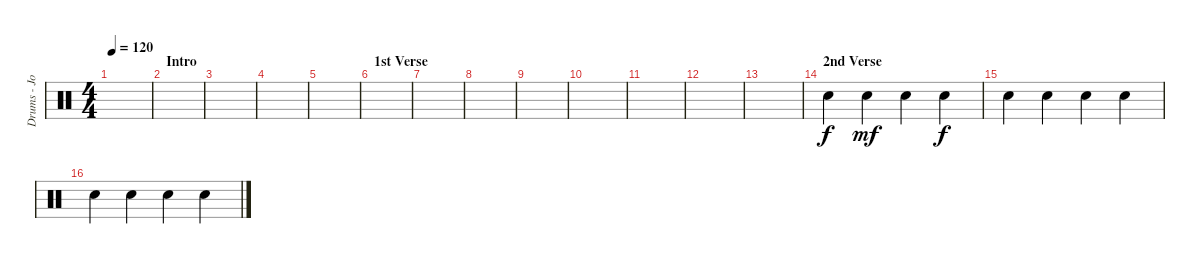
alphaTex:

\track ("Drums - Josh Klinghoffer" "Drums - Jo") {instrument percussion}
\staff {score}
\articulation defaults
\ts (4 4)
\tempo 120
\clef neutral
\ks c
|
\section ("" "Intro")
|
|
|
|
\section ("" "1st Verse")
|
|
|
|
|
|
|
|
\section ("" "2nd Verse")
"Snare (hit) 2".4 "Snare (hit) 2".4{dy mf} "Snare (hit) 2".4 "Snare (hit) 2".4{dy f} |
"Snare (hit) 2".4 "Snare (hit) 2".4 "Snare (hit) 2".4 "Snare (hit) 2".4 |
"Snare (hit) 2".4 "Snare (hit) 2".4 "Snare (hit) 2".4 "Snare (hit) 2".4
